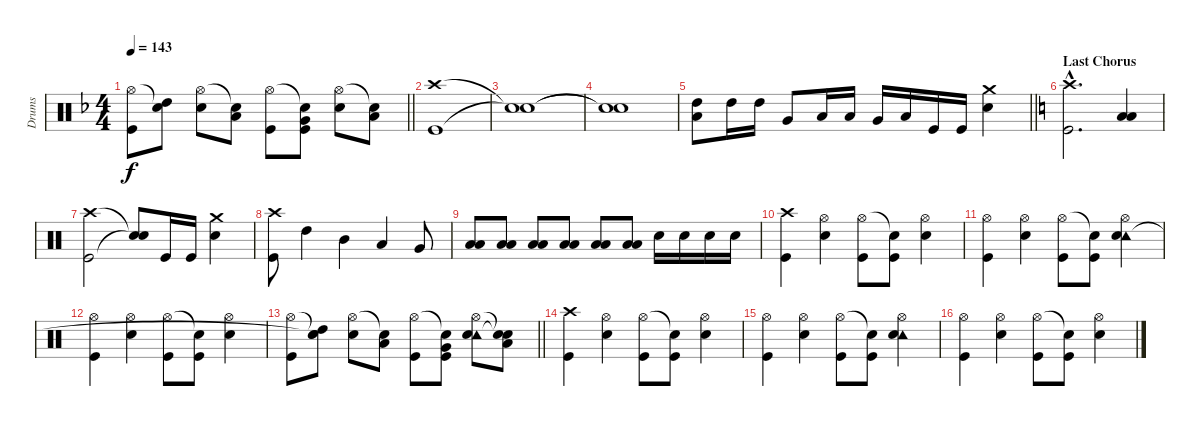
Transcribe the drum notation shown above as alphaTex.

\track ("Drums" "Drums") {instrument percussion}
\staff {score}
\articulation defaults
\ts (4 4)
\tempo 143
\clef neutral
\barLineRight lightlight
\ks f
("Hi-Hat (open)" "Kick (hit)").8{dy f} ("Snare (hit)"{t} "High Tom (hit)").8 ("Hi-Hat (open)" "Electric Snare (hit)").8 ("Snare (hit)"{t} "Low Tom (hit)").8 ("Hi-Hat (open)" "Kick (hit)").8 ("Snare (hit)"{t} "Very Low Tom (hit)" "Kick (hit)").8 ("Hi-Hat (open)" "Electric Snare (hit)").8 ("Snare (hit)"{t} "Low Floor Tom (hit)").8 |
("Crash high (hit)" "Kick (hit)").1 |
("Snare (hit)"{t} "Snare (hit)"{t}).1 |
("Snare (hit)"{t} "Snare (hit)"{t}).1 |
\barLineRight lightlight
("Low Tom (hit)" "High Tom (hit)").8 "High Tom (hit)".16 "High Tom (hit)".16 "Very Low Tom (hit)".8 "Low Tom (hit)".16 "Low Tom (hit)".16 "Very Low Tom (hit)".16 "Low Floor Tom (hit)".16 "Kick (hit)".16 "Kick (hit)".16 ("Crash medium (hit)" "Electric Snare (hit)").4 |
\section ("" "Last Chorus")
\ks c
("Crash high (hit)"{hac} "Kick (hit)"{hac}).2{d} ("Low Floor Tom (hit)" "Low Tom (hit)").4 |
("Crash high (hit)" "Kick (hit)").2 ("Snare (hit)"{t} "Snare (hit)"{t}).8 "Kick (hit)".16 "Kick (hit)".16 ("Crash medium (hit)" "Electric Snare (hit)").4 |
("Crash high (hit)" "Kick (hit)").8 "High Tom (hit)".4 "Mid Tom (hit)".4 "Low Tom (hit)".4 "Very Low Tom (hit)".8 |
("Low Floor Tom (hit)" "Low Tom (hit)").8 ("Low Floor Tom (hit)" "Low Tom (hit)").8 ("Low Floor Tom (hit)" "Low Tom (hit)").8 ("Low Floor Tom (hit)" "Low Tom (hit)").8 ("Low Floor Tom (hit)" "Low Tom (hit)").8 ("Low Floor Tom (hit)" "Low Tom (hit)").8 "Electric Snare (hit)".16 "Electric Snare (hit)".16 "Electric Snare (hit)".16 "Electric Snare (hit)".16 |
("Crash high (hit)" "Kick (hit)").4 ("Hi-Hat (open)" "Electric Snare (hit)").4 ("Hi-Hat (open)" "Kick (hit)").8 ("Snare (hit)"{t} "Kick (hit)").8 ("Hi-Hat (open)" "Electric Snare (hit)").4 |
("Hi-Hat (open)" "Kick (hit)").4 ("Hi-Hat (open)" "Electric Snare (hit)").4 ("Hi-Hat (open)" "Kick (hit)").8 ("Snare (hit)"{t} "Kick (hit)").8 ("Tambourine (hit)" "Hi-Hat (open)" "Electric Snare (hit)").4 |
("Hi-Hat (open)" "Kick (hit)").4 ("Hi-Hat (open)" "Electric Snare (hit)").4 ("Hi-Hat (open)" "Kick (hit)").8 ("Snare (hit)"{t} "Kick (hit)").8 ("Hi-Hat (open)" "Electric Snare (hit)").4 |
\barLineRight lightlight
("Hi-Hat (open)" "Kick (hit)").8 ("Snare (hit)"{t} "High Tom (hit)" "Snare (hit)"{t}).8 ("Hi-Hat (open)" "Electric Snare (hit)").8 ("Snare (hit)"{t} "Low Tom (hit)").8 ("Hi-Hat (open)" "Kick (hit)").8 ("Snare (hit)"{t} "Very Low Tom (hit)" "Kick (hit)").8 ("Tambourine (hit)" "Hi-Hat (open)" "Electric Snare (hit)").8 ("Snare (hit)"{t} "Snare (hit)"{t} "Low Floor Tom (hit)").8 |
("Crash high (hit)" "Kick (hit)").4 ("Hi-Hat (open)" "Electric Snare (hit)").4 ("Hi-Hat (open)" "Kick (hit)").8 ("Snare (hit)"{t} "Kick (hit)").8 ("Hi-Hat (open)" "Electric Snare (hit)").4 |
("Hi-Hat (open)" "Kick (hit)").4 ("Hi-Hat (open)" "Electric Snare (hit)").4 ("Hi-Hat (open)" "Kick (hit)").8 ("Snare (hit)"{t} "Kick (hit)").8 ("Tambourine (hit)" "Hi-Hat (open)" "Electric Snare (hit)").4 |
("Hi-Hat (open)" "Kick (hit)").4 ("Hi-Hat (open)" "Electric Snare (hit)").4 ("Hi-Hat (open)" "Kick (hit)").8 ("Snare (hit)"{t} "Kick (hit)").8 ("Hi-Hat (open)" "Electric Snare (hit)").4
